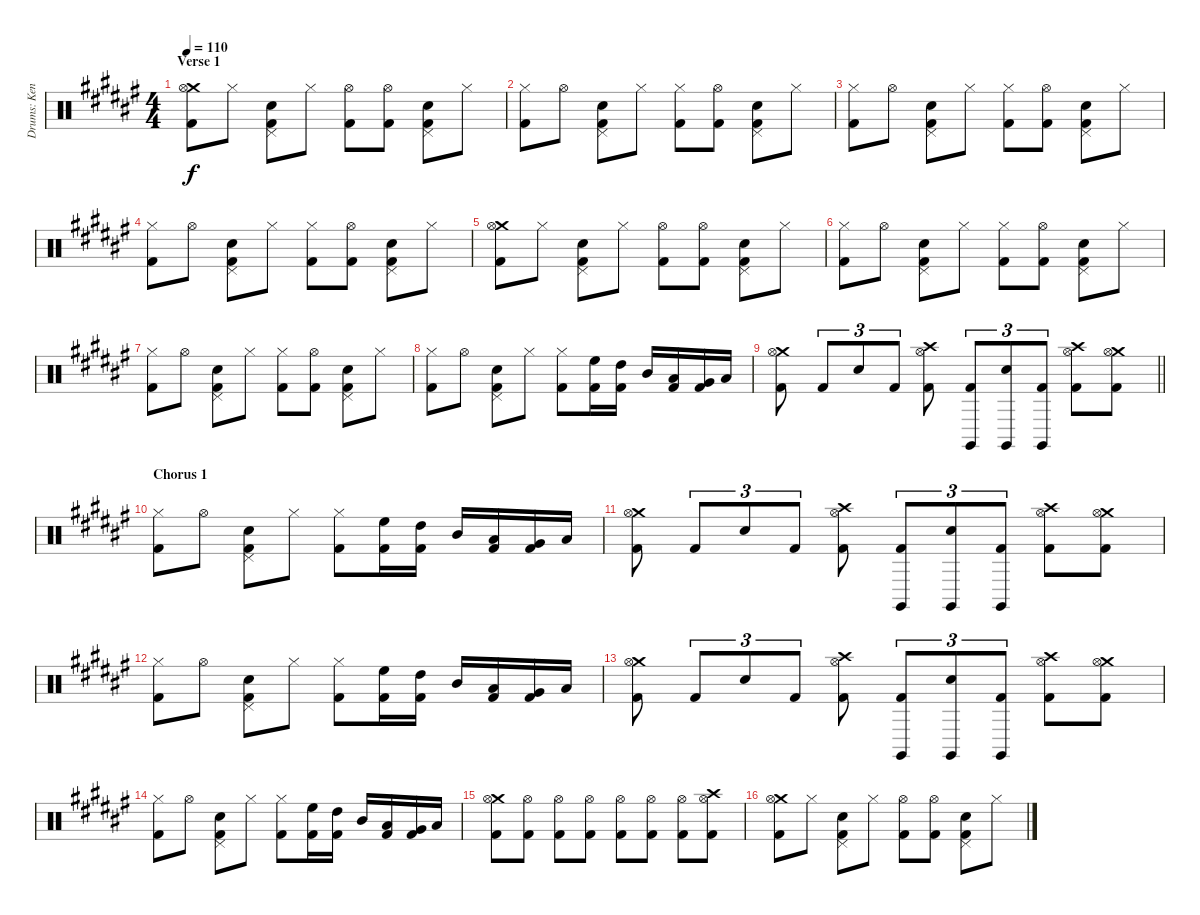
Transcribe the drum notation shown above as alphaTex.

\track ("Drums: Kenny Aronoff" "Drums: Ken") {instrument percussion}
\staff {score}
\articulation defaults
\ts (4 4)
\section ("" "Verse 1")
\tempo 110
\clef neutral
\ks f#
("Crash medium (hit)" "Hi-Hat (open)" "Kick (hit) 2").8{dy f} "Hi-Hat (closed)".8 ("Pedal Hi-Hat (hit)" "Snare (hit) 2" "Kick (hit) 2").8 "Hi-Hat (closed)".8 ("Hi-Hat (open)" "Kick (hit) 2").8 ("Hi-Hat (open)" "Kick (hit) 2").8 ("Pedal Hi-Hat (hit)" "Snare (hit) 2" "Kick (hit) 2").8 "Hi-Hat (closed)".8 |
("Hi-Hat (closed)" "Kick (hit) 2").8 "Hi-Hat (open)".8 ("Pedal Hi-Hat (hit)" "Snare (hit) 2" "Kick (hit) 2").8 "Hi-Hat (closed)".8 ("Hi-Hat (closed)" "Kick (hit) 2").8 ("Hi-Hat (open)" "Kick (hit) 2").8 ("Pedal Hi-Hat (hit)" "Snare (hit) 2" "Kick (hit) 2").8 "Hi-Hat (closed)".8 |
("Hi-Hat (closed)" "Kick (hit) 2").8 "Hi-Hat (open)".8 ("Pedal Hi-Hat (hit)" "Snare (hit) 2" "Kick (hit) 2").8 "Hi-Hat (closed)".8 ("Hi-Hat (closed)" "Kick (hit) 2").8 ("Hi-Hat (open)" "Kick (hit) 2").8 ("Pedal Hi-Hat (hit)" "Snare (hit) 2" "Kick (hit) 2").8 "Hi-Hat (closed)".8 |
("Hi-Hat (closed)" "Kick (hit) 2").8 "Hi-Hat (open)".8 ("Pedal Hi-Hat (hit)" "Snare (hit) 2" "Kick (hit) 2").8 "Hi-Hat (closed)".8 ("Hi-Hat (closed)" "Kick (hit) 2").8 ("Hi-Hat (open)" "Kick (hit) 2").8 ("Pedal Hi-Hat (hit)" "Snare (hit) 2" "Kick (hit) 2").8 "Hi-Hat (closed)".8 |
("Crash medium (hit)" "Hi-Hat (open)" "Kick (hit) 2").8 "Hi-Hat (closed)".8 ("Pedal Hi-Hat (hit)" "Snare (hit) 2" "Kick (hit) 2").8 "Hi-Hat (closed)".8 ("Hi-Hat (open)" "Kick (hit) 2").8 ("Hi-Hat (open)" "Kick (hit) 2").8 ("Pedal Hi-Hat (hit)" "Snare (hit) 2" "Kick (hit) 2").8 "Hi-Hat (closed)".8 |
("Hi-Hat (closed)" "Kick (hit) 2").8 "Hi-Hat (open)".8 ("Pedal Hi-Hat (hit)" "Snare (hit) 2" "Kick (hit) 2").8 "Hi-Hat (closed)".8 ("Hi-Hat (closed)" "Kick (hit) 2").8 ("Hi-Hat (open)" "Kick (hit) 2").8 ("Pedal Hi-Hat (hit)" "Snare (hit) 2" "Kick (hit) 2").8 "Hi-Hat (closed)".8 |
("Hi-Hat (closed)" "Kick (hit) 2").8 "Hi-Hat (open)".8 ("Pedal Hi-Hat (hit)" "Snare (hit) 2" "Kick (hit) 2").8 "Hi-Hat (closed)".8 ("Hi-Hat (closed)" "Kick (hit) 2").8 ("Hi-Hat (open)" "Kick (hit) 2").8 ("Pedal Hi-Hat (hit)" "Snare (hit) 2" "Kick (hit) 2").8 "Hi-Hat (closed)".8 |
("Hi-Hat (closed)" "Kick (hit) 2").8 "Hi-Hat (open)".8 ("Pedal Hi-Hat (hit)" "Snare (hit) 2" "Kick (hit) 2").8 "Hi-Hat (closed)".8 ("Hi-Hat (closed)" "Kick (hit) 2").8 ("High Floor Tom (hit)" "Kick (hit) 2").16 ("High Tom (hit)" "Kick (hit) 2").16 "Mid Tom (hit)".16 ("Low Tom (hit)" "Kick (hit) 2").16 ("Very Low Tom (hit)" "Kick (hit) 2").16 "Low Floor Tom (hit)".16 |
\barLineRight lightlight
("Crash medium (hit)" "Hi-Hat (open)" "Kick (hit) 2").8 "Kick (hit) 2".8{tu (3 2)} "Snare (hit) 2".8{tu (3 2)} "Kick (hit) 2".8{tu (3 2)} ("Crash high (hit)" "Hi-Hat (open)" "Kick (hit) 2").8 ("Claves (hit)" "Kick (hit) 2").8{tu (3 2)} ("Claves (hit)" "Snare (hit) 2").8{tu (3 2)} ("Claves (hit)" "Kick (hit) 2").8{tu (3 2)} ("Crash high (hit)" "Hi-Hat (open)" "Kick (hit) 2").8 ("Crash medium (hit)" "Hi-Hat (open)" "Kick (hit) 2").8 |
\section ("" "Chorus 1")
("Hi-Hat (closed)" "Kick (hit) 2").8 "Hi-Hat (open)".8 ("Pedal Hi-Hat (hit)" "Snare (hit) 2" "Kick (hit) 2").8 "Hi-Hat (closed)".8 ("Hi-Hat (closed)" "Kick (hit) 2").8 ("High Floor Tom (hit)" "Kick (hit) 2").16 ("High Tom (hit)" "Kick (hit) 2").16 "Mid Tom (hit)".16 ("Low Tom (hit)" "Kick (hit) 2").16 ("Very Low Tom (hit)" "Kick (hit) 2").16 "Low Floor Tom (hit)".16 |
("Crash medium (hit)" "Hi-Hat (open)" "Kick (hit) 2").8 "Kick (hit) 2".8{tu (3 2)} "Snare (hit) 2".8{tu (3 2)} "Kick (hit) 2".8{tu (3 2)} ("Crash high (hit)" "Hi-Hat (open)" "Kick (hit) 2").8 ("Claves (hit)" "Kick (hit) 2").8{tu (3 2)} ("Claves (hit)" "Snare (hit) 2").8{tu (3 2)} ("Claves (hit)" "Kick (hit) 2").8{tu (3 2)} ("Crash high (hit)" "Hi-Hat (open)" "Kick (hit) 2").8 ("Crash medium (hit)" "Hi-Hat (open)" "Kick (hit) 2").8 |
("Hi-Hat (closed)" "Kick (hit) 2").8 "Hi-Hat (open)".8 ("Pedal Hi-Hat (hit)" "Snare (hit) 2" "Kick (hit) 2").8 "Hi-Hat (closed)".8 ("Hi-Hat (closed)" "Kick (hit) 2").8 ("High Floor Tom (hit)" "Kick (hit) 2").16 ("High Tom (hit)" "Kick (hit) 2").16 "Mid Tom (hit)".16 ("Low Tom (hit)" "Kick (hit) 2").16 ("Very Low Tom (hit)" "Kick (hit) 2").16 "Low Floor Tom (hit)".16 |
("Crash medium (hit)" "Hi-Hat (open)" "Kick (hit) 2").8 "Kick (hit) 2".8{tu (3 2)} "Snare (hit) 2".8{tu (3 2)} "Kick (hit) 2".8{tu (3 2)} ("Crash high (hit)" "Hi-Hat (open)" "Kick (hit) 2").8 ("Claves (hit)" "Kick (hit) 2").8{tu (3 2)} ("Claves (hit)" "Snare (hit) 2").8{tu (3 2)} ("Claves (hit)" "Kick (hit) 2").8{tu (3 2)} ("Crash high (hit)" "Hi-Hat (open)" "Kick (hit) 2").8 ("Crash medium (hit)" "Hi-Hat (open)" "Kick (hit) 2").8 |
("Hi-Hat (closed)" "Kick (hit) 2").8 "Hi-Hat (open)".8 ("Pedal Hi-Hat (hit)" "Snare (hit) 2" "Kick (hit) 2").8 "Hi-Hat (closed)".8 ("Hi-Hat (closed)" "Kick (hit) 2").8 ("High Floor Tom (hit)" "Kick (hit) 2").16 ("High Tom (hit)" "Kick (hit) 2").16 "Mid Tom (hit)".16 ("Low Tom (hit)" "Kick (hit) 2").16 ("Very Low Tom (hit)" "Kick (hit) 2").16 "Low Floor Tom (hit)".16 |
("Crash medium (hit)" "Hi-Hat (open)" "Kick (hit) 2").8 ("Hi-Hat (open)" "Kick (hit) 2").8 ("Hi-Hat (open)" "Kick (hit) 2").8 ("Hi-Hat (open)" "Kick (hit) 2").8 ("Hi-Hat (open)" "Kick (hit) 2").8 ("Hi-Hat (open)" "Kick (hit) 2").8 ("Hi-Hat (open)" "Kick (hit) 2").8 ("Crash high (hit)" "Hi-Hat (open)" "Kick (hit) 2").8 |
("Crash medium (hit)" "Hi-Hat (open)" "Kick (hit) 2").8 "Hi-Hat (closed)".8 ("Pedal Hi-Hat (hit)" "Snare (hit) 2" "Kick (hit) 2").8 "Hi-Hat (closed)".8 ("Hi-Hat (open)" "Kick (hit) 2").8 ("Hi-Hat (open)" "Kick (hit) 2").8 ("Pedal Hi-Hat (hit)" "Snare (hit) 2" "Kick (hit) 2").8 "Hi-Hat (closed)".8
